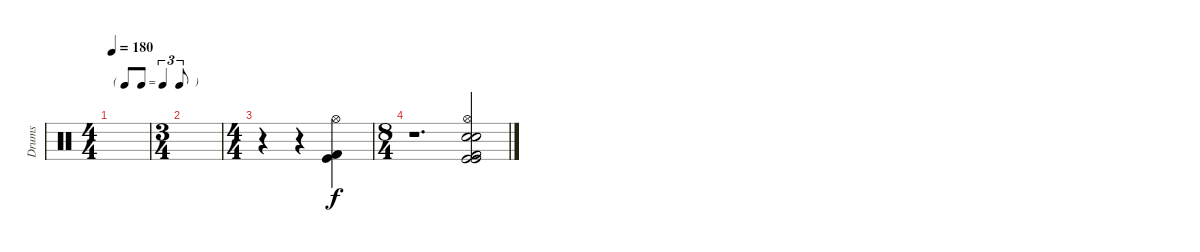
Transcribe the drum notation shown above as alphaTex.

\track ("Drums" "Drums") {instrument percussion}
\staff {score}
\articulation defaults
\ts (4 4)
\tf triplet8th
\tempo 180
\clef neutral
\ks c
|
\ts (3 4)
|
\ts (4 4)
r.4 r.4 ("Kick (hit) 2" "Kick (hit)" "Hi-Hat (open)").4 |
\ts (8 4)
r.1{d} ("Kick (hit) 2" "Kick (hit)" "Kick (hit)" "Hi-Hat (open)" "Snare (hit)" "Electric Snare (hit)").2
